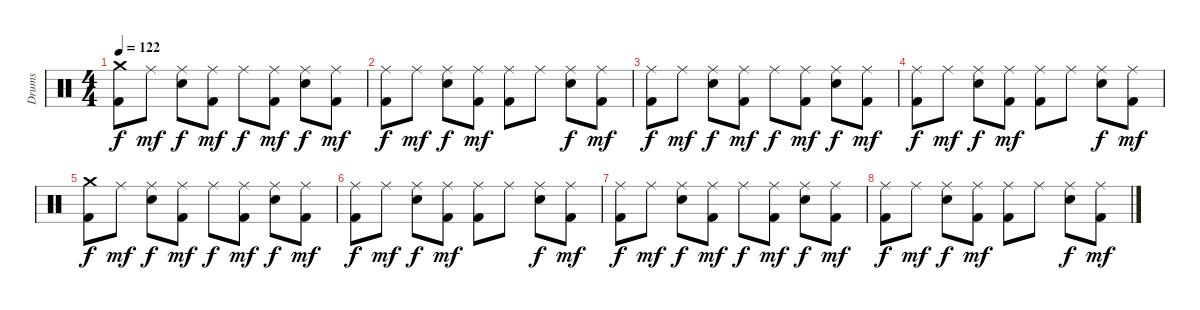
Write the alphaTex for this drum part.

\track ("Drums" "Drums") {instrument percussion}
\staff {score}
\articulation defaults
\ts (4 4)
\tempo 122
\clef neutral
\ks c
("Crash medium (hit)" "Kick (hit) 2").8{dy f} "Ride (middle)".8{dy mf} ("Ride (middle)" "Snare (hit) 2").8{dy f} ("Ride (middle)" "Kick (hit) 2").8{dy mf} "Ride (middle)".8{dy f} ("Ride (middle)" "Kick (hit) 2").8{dy mf} ("Ride (middle)" "Snare (hit) 2").8{dy f} ("Ride (middle)" "Kick (hit) 2").8{dy mf} |
("Ride (middle)" "Kick (hit) 2").8{dy f} "Ride (middle)".8{dy mf} ("Ride (middle)" "Snare (hit) 2").8{dy f} ("Ride (middle)" "Kick (hit) 2").8{dy mf} ("Ride (middle)" "Kick (hit) 2").8 "Ride (middle)".8 ("Ride (middle)" "Snare (hit) 2").8{dy f} ("Ride (middle)" "Kick (hit) 2").8{dy mf} |
("Ride (middle)" "Kick (hit) 2").8{dy f} "Ride (middle)".8{dy mf} ("Ride (middle)" "Snare (hit) 2").8{dy f} ("Ride (middle)" "Kick (hit) 2").8{dy mf} "Ride (middle)".8{dy f} ("Ride (middle)" "Kick (hit) 2").8{dy mf} ("Ride (middle)" "Snare (hit) 2").8{dy f} ("Ride (middle)" "Kick (hit) 2").8{dy mf} |
("Ride (middle)" "Kick (hit) 2").8{dy f volume 0} "Ride (middle)".8{dy mf} ("Ride (middle)" "Snare (hit) 2").8{dy f} ("Ride (middle)" "Kick (hit) 2").8{dy mf} ("Ride (middle)" "Kick (hit) 2").8 "Ride (middle)".8 ("Ride (middle)" "Snare (hit) 2").8{dy f} ("Ride (middle)" "Kick (hit) 2").8{dy mf} |
("Crash medium (hit)" "Kick (hit) 2").8{dy f} "Ride (middle)".8{dy mf} ("Ride (middle)" "Snare (hit) 2").8{dy f} ("Ride (middle)" "Kick (hit) 2").8{dy mf} "Ride (middle)".8{dy f} ("Ride (middle)" "Kick (hit) 2").8{dy mf} ("Ride (middle)" "Snare (hit) 2").8{dy f} ("Ride (middle)" "Kick (hit) 2").8{dy mf} |
("Ride (middle)" "Kick (hit) 2").8{dy f} "Ride (middle)".8{dy mf} ("Ride (middle)" "Snare (hit) 2").8{dy f} ("Ride (middle)" "Kick (hit) 2").8{dy mf} ("Ride (middle)" "Kick (hit) 2").8 "Ride (middle)".8 ("Ride (middle)" "Snare (hit) 2").8{dy f} ("Ride (middle)" "Kick (hit) 2").8{dy mf} |
("Ride (middle)" "Kick (hit) 2").8{dy f} "Ride (middle)".8{dy mf} ("Ride (middle)" "Snare (hit) 2").8{dy f} ("Ride (middle)" "Kick (hit) 2").8{dy mf} "Ride (middle)".8{dy f} ("Ride (middle)" "Kick (hit) 2").8{dy mf} ("Ride (middle)" "Snare (hit) 2").8{dy f} ("Ride (middle)" "Kick (hit) 2").8{dy mf} |
("Ride (middle)" "Kick (hit) 2").8{dy f} "Ride (middle)".8{dy mf} ("Ride (middle)" "Snare (hit) 2").8{dy f} ("Ride (middle)" "Kick (hit) 2").8{dy mf} ("Ride (middle)" "Kick (hit) 2").8 "Ride (middle)".8 ("Ride (middle)" "Snare (hit) 2").8{dy f} ("Ride (middle)" "Kick (hit) 2").8{dy mf}
